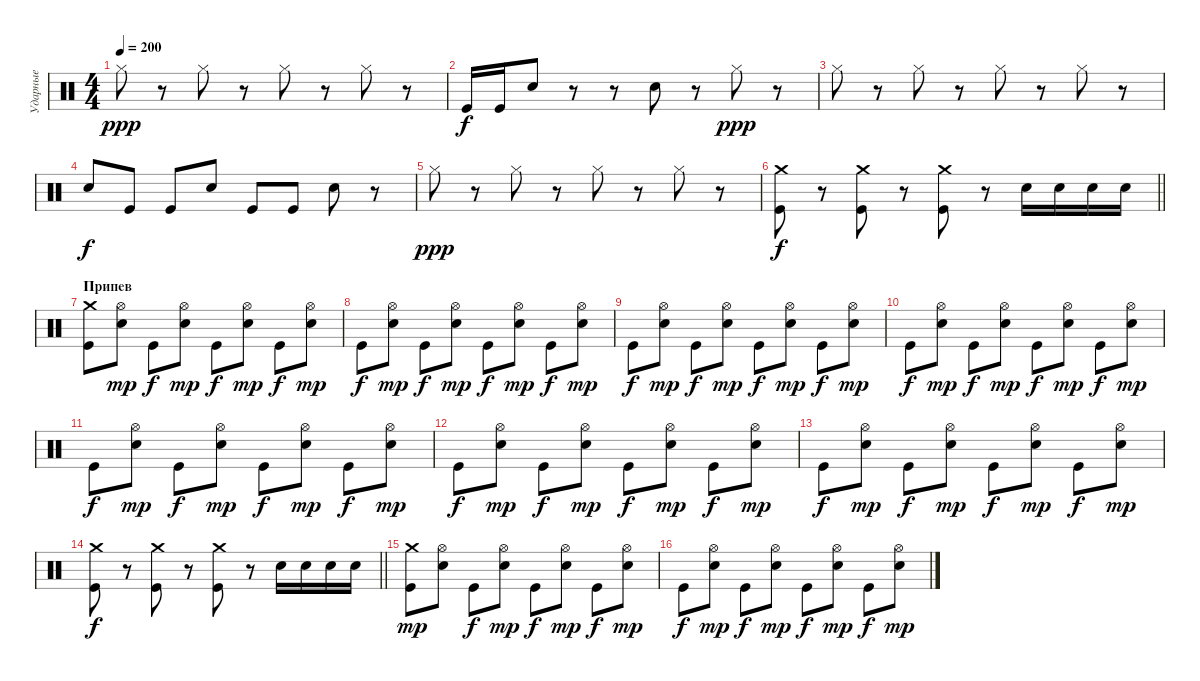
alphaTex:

\track ("Ударные" "Ударные") {instrument percussion}
\staff {score}
\articulation defaults
\ts (4 4)
\tempo 200
\clef neutral
\ks c "Hi-Hat (closed)".8{dy ppp}
r.8 "Hi-Hat (closed)".8 r.8 "Hi-Hat (closed)".8 r.8 "Hi-Hat (closed)".8 r.8 |
"Kick (hit)".16{dy f} "Kick (hit)".16 "Electric Snare (hit)".8 r.8 r.8 "Electric Snare (hit)".8 r.8 "Hi-Hat (closed)".8{dy ppp} r.8 |
"Hi-Hat (closed)".8 r.8 "Hi-Hat (closed)".8 r.8 "Hi-Hat (closed)".8 r.8 "Hi-Hat (closed)".8 r.8 |
"Electric Snare (hit)".8{dy f} "Kick (hit)".8 "Kick (hit)".8 "Electric Snare (hit)".8 "Kick (hit)".8 "Kick (hit)".8 "Electric Snare (hit)".8 r.8 |
"Hi-Hat (closed)".8{dy ppp} r.8 "Hi-Hat (closed)".8 r.8 "Hi-Hat (closed)".8 r.8 "Hi-Hat (closed)".8 r.8 |
\barLineRight lightlight
("Crash medium (hit)" "Kick (hit)").8{dy f} r.8 ("Crash medium (hit)" "Kick (hit)").8 r.8 ("Crash medium (hit)" "Kick (hit)").8 r.8 "Electric Snare (hit)".16 "Electric Snare (hit)".16 "Electric Snare (hit)".16 "Electric Snare (hit)".16 |
\section ("" "Припев")
("Crash medium (hit)" "Kick (hit)").8 ("Hi-Hat (open)" "Electric Snare (hit)").8{dy mp} "Kick (hit)".8{dy f} ("Hi-Hat (open)" "Electric Snare (hit)").8{dy mp} "Kick (hit)".8{dy f} ("Hi-Hat (open)" "Electric Snare (hit)").8{dy mp} "Kick (hit)".8{dy f} ("Hi-Hat (open)" "Electric Snare (hit)").8{dy mp} |
"Kick (hit)".8{dy f} ("Hi-Hat (open)" "Electric Snare (hit)").8{dy mp} "Kick (hit)".8{dy f} ("Hi-Hat (open)" "Electric Snare (hit)").8{dy mp} "Kick (hit)".8{dy f} ("Hi-Hat (open)" "Electric Snare (hit)").8{dy mp} "Kick (hit)".8{dy f} ("Hi-Hat (open)" "Electric Snare (hit)").8{dy mp} |
"Kick (hit)".8{dy f} ("Hi-Hat (open)" "Electric Snare (hit)").8{dy mp} "Kick (hit)".8{dy f} ("Hi-Hat (open)" "Electric Snare (hit)").8{dy mp} "Kick (hit)".8{dy f} ("Hi-Hat (open)" "Electric Snare (hit)").8{dy mp} "Kick (hit)".8{dy f} ("Hi-Hat (open)" "Electric Snare (hit)").8{dy mp} |
"Kick (hit)".8{dy f} ("Hi-Hat (open)" "Electric Snare (hit)").8{dy mp} "Kick (hit)".8{dy f} ("Hi-Hat (open)" "Electric Snare (hit)").8{dy mp} "Kick (hit)".8{dy f} ("Hi-Hat (open)" "Electric Snare (hit)").8{dy mp} "Kick (hit)".8{dy f} ("Hi-Hat (open)" "Electric Snare (hit)").8{dy mp} |
"Kick (hit)".8{dy f} ("Hi-Hat (open)" "Electric Snare (hit)").8{dy mp} "Kick (hit)".8{dy f} ("Hi-Hat (open)" "Electric Snare (hit)").8{dy mp} "Kick (hit)".8{dy f} ("Hi-Hat (open)" "Electric Snare (hit)").8{dy mp} "Kick (hit)".8{dy f} ("Hi-Hat (open)" "Electric Snare (hit)").8{dy mp} |
"Kick (hit)".8{dy f} ("Hi-Hat (open)" "Electric Snare (hit)").8{dy mp} "Kick (hit)".8{dy f} ("Hi-Hat (open)" "Electric Snare (hit)").8{dy mp} "Kick (hit)".8{dy f} ("Hi-Hat (open)" "Electric Snare (hit)").8{dy mp} "Kick (hit)".8{dy f} ("Hi-Hat (open)" "Electric Snare (hit)").8{dy mp} |
"Kick (hit)".8{dy f} ("Hi-Hat (open)" "Electric Snare (hit)").8{dy mp} "Kick (hit)".8{dy f} ("Hi-Hat (open)" "Electric Snare (hit)").8{dy mp} "Kick (hit)".8{dy f} ("Hi-Hat (open)" "Electric Snare (hit)").8{dy mp} "Kick (hit)".8{dy f} ("Hi-Hat (open)" "Electric Snare (hit)").8{dy mp} |
\barLineRight lightlight
("Crash medium (hit)" "Kick (hit)").8{dy f} r.8 ("Crash medium (hit)" "Kick (hit)").8 r.8 ("Crash medium (hit)" "Kick (hit)").8 r.8 "Electric Snare (hit)".16 "Electric Snare (hit)".16 "Electric Snare (hit)".16 "Electric Snare (hit)".16 |
("Crash medium (hit)" "Kick (hit)").8{dy mp} ("Hi-Hat (open)" "Electric Snare (hit)").8 "Kick (hit)".8{dy f} ("Hi-Hat (open)" "Electric Snare (hit)").8{dy mp} "Kick (hit)".8{dy f} ("Hi-Hat (open)" "Electric Snare (hit)").8{dy mp} "Kick (hit)".8{dy f} ("Hi-Hat (open)" "Electric Snare (hit)").8{dy mp} |
"Kick (hit)".8{dy f} ("Hi-Hat (open)" "Electric Snare (hit)").8{dy mp} "Kick (hit)".8{dy f} ("Hi-Hat (open)" "Electric Snare (hit)").8{dy mp} "Kick (hit)".8{dy f} ("Hi-Hat (open)" "Electric Snare (hit)").8{dy mp} "Kick (hit)".8{dy f} ("Hi-Hat (open)" "Electric Snare (hit)").8{dy mp}
